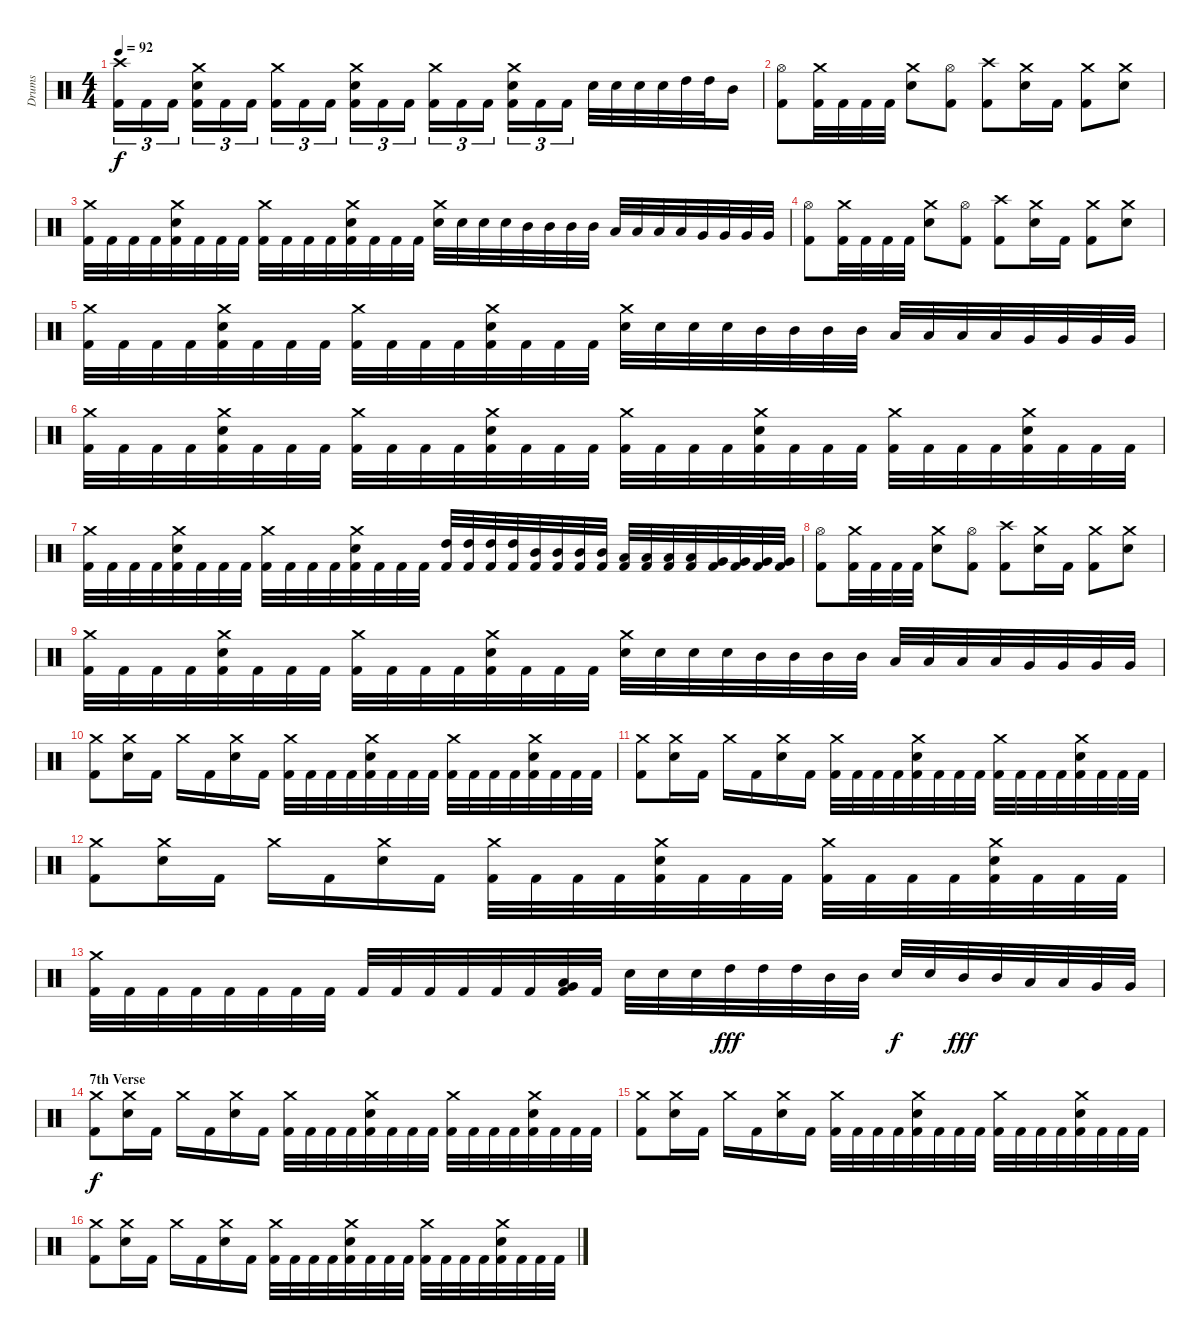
\track ("Drums" "Drums") {instrument percussion}
\staff {score}
\articulation defaults
\ts (4 4)
\tempo 92
\clef neutral
\ks c
("Kick (hit) 2" "Crash high (hit)").16{tu (3 2) dy f} "Kick (hit) 2".16{tu (3 2)} "Kick (hit) 2".16{tu (3 2)} ("Kick (hit) 2" "Electric Snare (hit)" "Crash medium (hit)").16{tu (3 2)} "Kick (hit) 2".16{tu (3 2)} "Kick (hit) 2".16{tu (3 2)} ("Kick (hit) 2" "Crash medium (hit)").16{tu (3 2)} "Kick (hit) 2".16{tu (3 2)} "Kick (hit) 2".16{tu (3 2)} ("Kick (hit) 2" "Electric Snare (hit)" "Crash medium (hit)").16{tu (3 2)} "Kick (hit) 2".16{tu (3 2)} "Kick (hit) 2".16{tu (3 2)} ("Kick (hit) 2" "Crash medium (hit)").16{tu (3 2)} "Kick (hit) 2".16{tu (3 2)} "Kick (hit) 2".16{tu (3 2)} ("Kick (hit) 2" "Electric Snare (hit)" "Crash medium (hit)").16{tu (3 2)} "Kick (hit) 2".16{tu (3 2)} "Kick (hit) 2".16{tu (3 2)} "Electric Snare (hit)".32 "Electric Snare (hit)".32 "Electric Snare (hit)".32 "Electric Snare (hit)".32 "High Tom (hit)".32 "High Tom (hit)".32 "Mid Tom (hit)".16 |
("Kick (hit) 2" "Hi-Hat (open)").8 ("Kick (hit) 2" "Crash medium (hit)").32 "Kick (hit) 2".32 "Kick (hit) 2".32 "Kick (hit) 2".32 ("Electric Snare (hit)" "Crash medium (hit)").8 ("Kick (hit) 2" "Hi-Hat (open)").8 ("Kick (hit) 2" "Crash high (hit)").8 ("Electric Snare (hit)" "Crash medium (hit)").16 "Kick (hit) 2".16 ("Kick (hit) 2" "Crash medium (hit)").8 ("Electric Snare (hit)" "Crash medium (hit)").8 |
("Kick (hit) 2" "Crash medium (hit)").32 "Kick (hit) 2".32 "Kick (hit) 2".32 "Kick (hit) 2".32 ("Kick (hit) 2" "Electric Snare (hit)" "Crash medium (hit)").32 "Kick (hit) 2".32 "Kick (hit) 2".32 "Kick (hit) 2".32 ("Kick (hit) 2" "Crash medium (hit)").32 "Kick (hit) 2".32 "Kick (hit) 2".32 "Kick (hit) 2".32 ("Kick (hit) 2" "Electric Snare (hit)" "Crash medium (hit)").32 "Kick (hit) 2".32 "Kick (hit) 2".32 "Kick (hit) 2".32 ("Electric Snare (hit)" "Crash medium (hit)").32 "Electric Snare (hit)".32 "Electric Snare (hit)".32 "Electric Snare (hit)".32 "Mid Tom (hit)".32 "Mid Tom (hit)".32 "Mid Tom (hit)".32 "Mid Tom (hit)".32 "Low Tom (hit)".32 "Low Tom (hit)".32 "Low Tom (hit)".32 "Low Tom (hit)".32 "Very Low Tom (hit)".32 "Very Low Tom (hit)".32 "Very Low Tom (hit)".32 "Very Low Tom (hit)".32 |
("Kick (hit) 2" "Hi-Hat (open)").8 ("Kick (hit) 2" "Crash medium (hit)").32 "Kick (hit) 2".32 "Kick (hit) 2".32 "Kick (hit) 2".32 ("Electric Snare (hit)" "Crash medium (hit)").8 ("Kick (hit) 2" "Hi-Hat (open)").8 ("Kick (hit) 2" "Crash high (hit)").8 ("Electric Snare (hit)" "Crash medium (hit)").16 "Kick (hit) 2".16 ("Kick (hit) 2" "Crash medium (hit)").8 ("Electric Snare (hit)" "Crash medium (hit)").8 |
("Kick (hit) 2" "Crash medium (hit)").32 "Kick (hit) 2".32 "Kick (hit) 2".32 "Kick (hit) 2".32 ("Kick (hit) 2" "Electric Snare (hit)" "Crash medium (hit)").32 "Kick (hit) 2".32 "Kick (hit) 2".32 "Kick (hit) 2".32 ("Kick (hit) 2" "Crash medium (hit)").32 "Kick (hit) 2".32 "Kick (hit) 2".32 "Kick (hit) 2".32 ("Kick (hit) 2" "Electric Snare (hit)" "Crash medium (hit)").32 "Kick (hit) 2".32 "Kick (hit) 2".32 "Kick (hit) 2".32 ("Electric Snare (hit)" "Crash medium (hit)").32 "Electric Snare (hit)".32 "Electric Snare (hit)".32 "Electric Snare (hit)".32 "Mid Tom (hit)".32 "Mid Tom (hit)".32 "Mid Tom (hit)".32 "Mid Tom (hit)".32 "Low Tom (hit)".32 "Low Tom (hit)".32 "Low Tom (hit)".32 "Low Tom (hit)".32 "Very Low Tom (hit)".32 "Very Low Tom (hit)".32 "Very Low Tom (hit)".32 "Very Low Tom (hit)".32 |
("Kick (hit) 2" "Crash medium (hit)").32 "Kick (hit) 2".32 "Kick (hit) 2".32 "Kick (hit) 2".32 ("Kick (hit) 2" "Electric Snare (hit)" "Crash medium (hit)").32 "Kick (hit) 2".32 "Kick (hit) 2".32 "Kick (hit) 2".32 ("Kick (hit) 2" "Crash medium (hit)").32 "Kick (hit) 2".32 "Kick (hit) 2".32 "Kick (hit) 2".32 ("Kick (hit) 2" "Electric Snare (hit)" "Crash medium (hit)").32 "Kick (hit) 2".32 "Kick (hit) 2".32 "Kick (hit) 2".32 ("Kick (hit) 2" "Crash medium (hit)").32 "Kick (hit) 2".32 "Kick (hit) 2".32 "Kick (hit) 2".32 ("Kick (hit) 2" "Electric Snare (hit)" "Crash medium (hit)").32 "Kick (hit) 2".32 "Kick (hit) 2".32 "Kick (hit) 2".32 ("Kick (hit) 2" "Crash medium (hit)").32 "Kick (hit) 2".32 "Kick (hit) 2".32 "Kick (hit) 2".32 ("Kick (hit) 2" "Electric Snare (hit)" "Crash medium (hit)").32 "Kick (hit) 2".32 "Kick (hit) 2".32 "Kick (hit) 2".32 |
("Kick (hit) 2" "Crash medium (hit)").32 "Kick (hit) 2".32 "Kick (hit) 2".32 "Kick (hit) 2".32 ("Kick (hit) 2" "Electric Snare (hit)" "Crash medium (hit)").32 "Kick (hit) 2".32 "Kick (hit) 2".32 "Kick (hit) 2".32 ("Kick (hit) 2" "Crash medium (hit)").32 "Kick (hit) 2".32 "Kick (hit) 2".32 "Kick (hit) 2".32 ("Kick (hit) 2" "Electric Snare (hit)" "Crash medium (hit)").32 "Kick (hit) 2".32 "Kick (hit) 2".32 "Kick (hit) 2".32 ("Kick (hit) 2" "High Tom (hit)").32 ("Kick (hit) 2" "High Tom (hit)").32 ("Kick (hit) 2" "High Tom (hit)").32 ("Kick (hit) 2" "High Tom (hit)").32 ("Kick (hit) 2" "Mid Tom (hit)").32 ("Kick (hit) 2" "Mid Tom (hit)").32 ("Kick (hit) 2" "Mid Tom (hit)").32 ("Kick (hit) 2" "Mid Tom (hit)").32 ("Kick (hit) 2" "Low Tom (hit)").32 ("Kick (hit) 2" "Low Tom (hit)").32 ("Kick (hit) 2" "Low Tom (hit)").32 ("Kick (hit) 2" "Low Tom (hit)").32 ("Kick (hit) 2" "Very Low Tom (hit)").32 ("Kick (hit) 2" "Very Low Tom (hit)").32 ("Kick (hit) 2" "Very Low Tom (hit)").32 ("Kick (hit) 2" "Very Low Tom (hit)").32 |
("Kick (hit) 2" "Hi-Hat (open)").8 ("Kick (hit) 2" "Crash medium (hit)").32 "Kick (hit) 2".32 "Kick (hit) 2".32 "Kick (hit) 2".32 ("Electric Snare (hit)" "Crash medium (hit)").8 ("Kick (hit) 2" "Hi-Hat (open)").8 ("Kick (hit) 2" "Crash high (hit)").8 ("Electric Snare (hit)" "Crash medium (hit)").16 "Kick (hit) 2".16 ("Kick (hit) 2" "Crash medium (hit)").8 ("Electric Snare (hit)" "Crash medium (hit)").8 |
("Kick (hit) 2" "Crash medium (hit)").32 "Kick (hit) 2".32 "Kick (hit) 2".32 "Kick (hit) 2".32 ("Kick (hit) 2" "Electric Snare (hit)" "Crash medium (hit)").32 "Kick (hit) 2".32 "Kick (hit) 2".32 "Kick (hit) 2".32 ("Kick (hit) 2" "Crash medium (hit)").32 "Kick (hit) 2".32 "Kick (hit) 2".32 "Kick (hit) 2".32 ("Kick (hit) 2" "Electric Snare (hit)" "Crash medium (hit)").32 "Kick (hit) 2".32 "Kick (hit) 2".32 "Kick (hit) 2".32 ("Electric Snare (hit)" "Crash medium (hit)").32 "Electric Snare (hit)".32 "Electric Snare (hit)".32 "Electric Snare (hit)".32 "Mid Tom (hit)".32 "Mid Tom (hit)".32 "Mid Tom (hit)".32 "Mid Tom (hit)".32 "Low Tom (hit)".32 "Low Tom (hit)".32 "Low Tom (hit)".32 "Low Tom (hit)".32 "Very Low Tom (hit)".32 "Very Low Tom (hit)".32 "Very Low Tom (hit)".32 "Very Low Tom (hit)".32 |
("Kick (hit) 2" "Crash medium (hit)").8 ("Electric Snare (hit)" "Crash medium (hit)").16 "Kick (hit) 2".16 "Crash medium (hit)".16 "Kick (hit) 2".16 ("Electric Snare (hit)" "Crash medium (hit)").16 "Kick (hit) 2".16 ("Kick (hit) 2" "Crash medium (hit)").32 "Kick (hit) 2".32 "Kick (hit) 2".32 "Kick (hit) 2".32 ("Kick (hit) 2" "Electric Snare (hit)" "Crash medium (hit)").32 "Kick (hit) 2".32 "Kick (hit) 2".32 "Kick (hit) 2".32 ("Kick (hit) 2" "Crash medium (hit)").32 "Kick (hit) 2".32 "Kick (hit) 2".32 "Kick (hit) 2".32 ("Kick (hit) 2" "Electric Snare (hit)" "Crash medium (hit)").32 "Kick (hit) 2".32 "Kick (hit) 2".32 "Kick (hit) 2".32 |
("Kick (hit) 2" "Crash medium (hit)").8 ("Electric Snare (hit)" "Crash medium (hit)").16 "Kick (hit) 2".16 "Crash medium (hit)".16 "Kick (hit) 2".16 ("Electric Snare (hit)" "Crash medium (hit)").16 "Kick (hit) 2".16 ("Kick (hit) 2" "Crash medium (hit)").32 "Kick (hit) 2".32 "Kick (hit) 2".32 "Kick (hit) 2".32 ("Kick (hit) 2" "Electric Snare (hit)" "Crash medium (hit)").32 "Kick (hit) 2".32 "Kick (hit) 2".32 "Kick (hit) 2".32 ("Kick (hit) 2" "Crash medium (hit)").32 "Kick (hit) 2".32 "Kick (hit) 2".32 "Kick (hit) 2".32 ("Kick (hit) 2" "Electric Snare (hit)" "Crash medium (hit)").32 "Kick (hit) 2".32 "Kick (hit) 2".32 "Kick (hit) 2".32 |
("Kick (hit) 2" "Crash medium (hit)").8 ("Electric Snare (hit)" "Crash medium (hit)").16 "Kick (hit) 2".16 "Crash medium (hit)".16 "Kick (hit) 2".16 ("Electric Snare (hit)" "Crash medium (hit)").16 "Kick (hit) 2".16 ("Kick (hit) 2" "Crash medium (hit)").32 "Kick (hit) 2".32 "Kick (hit) 2".32 "Kick (hit) 2".32 ("Kick (hit) 2" "Electric Snare (hit)" "Crash medium (hit)").32 "Kick (hit) 2".32 "Kick (hit) 2".32 "Kick (hit) 2".32 ("Kick (hit) 2" "Crash medium (hit)").32 "Kick (hit) 2".32 "Kick (hit) 2".32 "Kick (hit) 2".32 ("Kick (hit) 2" "Electric Snare (hit)" "Crash medium (hit)").32 "Kick (hit) 2".32 "Kick (hit) 2".32 "Kick (hit) 2".32 |
("Kick (hit) 2" "Crash medium (hit)").32 "Kick (hit) 2".32 "Kick (hit) 2".32 "Kick (hit) 2".32 "Kick (hit) 2".32 "Kick (hit) 2".32 "Kick (hit) 2".32 "Kick (hit) 2".32 "Kick (hit) 2".32 "Kick (hit) 2".32 "Kick (hit) 2".32 "Kick (hit) 2".32 "Kick (hit) 2".32 "Kick (hit) 2".32 ("Kick (hit) 2" "Low Tom (hit)" "Very Low Tom (hit)").32 "Kick (hit) 2".32 "Electric Snare (hit)".32 "Electric Snare (hit)".32 "Electric Snare (hit)".32 "High Tom (hit)".32{dy fff} "High Tom (hit)".32 "High Tom (hit)".32 "Mid Tom (hit)".32 "Mid Tom (hit)".32 "Electric Snare (hit)".32{dy f} "Electric Snare (hit)".32 "Mid Tom (hit)".32{dy fff} "Mid Tom (hit)".32 "Low Tom (hit)".32 "Low Tom (hit)".32 "Very Low Tom (hit)".32 "Very Low Tom (hit)".32 |
\section ("" "7th Verse")
("Kick (hit) 2" "Crash medium (hit)").8{dy f} ("Electric Snare (hit)" "Crash medium (hit)").16 "Kick (hit) 2".16 "Crash medium (hit)".16 "Kick (hit) 2".16 ("Electric Snare (hit)" "Crash medium (hit)").16 "Kick (hit) 2".16 ("Kick (hit) 2" "Crash medium (hit)").32 "Kick (hit) 2".32 "Kick (hit) 2".32 "Kick (hit) 2".32 ("Kick (hit) 2" "Electric Snare (hit)" "Crash medium (hit)").32 "Kick (hit) 2".32 "Kick (hit) 2".32 "Kick (hit) 2".32 ("Kick (hit) 2" "Crash medium (hit)").32 "Kick (hit) 2".32 "Kick (hit) 2".32 "Kick (hit) 2".32 ("Kick (hit) 2" "Electric Snare (hit)" "Crash medium (hit)").32 "Kick (hit) 2".32 "Kick (hit) 2".32 "Kick (hit) 2".32 |
("Kick (hit) 2" "Crash medium (hit)").8 ("Electric Snare (hit)" "Crash medium (hit)").16 "Kick (hit) 2".16 "Crash medium (hit)".16 "Kick (hit) 2".16 ("Electric Snare (hit)" "Crash medium (hit)").16 "Kick (hit) 2".16 ("Kick (hit) 2" "Crash medium (hit)").32 "Kick (hit) 2".32 "Kick (hit) 2".32 "Kick (hit) 2".32 ("Kick (hit) 2" "Electric Snare (hit)" "Crash medium (hit)").32 "Kick (hit) 2".32 "Kick (hit) 2".32 "Kick (hit) 2".32 ("Kick (hit) 2" "Crash medium (hit)").32 "Kick (hit) 2".32 "Kick (hit) 2".32 "Kick (hit) 2".32 ("Kick (hit) 2" "Electric Snare (hit)" "Crash medium (hit)").32 "Kick (hit) 2".32 "Kick (hit) 2".32 "Kick (hit) 2".32 |
("Kick (hit) 2" "Crash medium (hit)").8 ("Electric Snare (hit)" "Crash medium (hit)").16 "Kick (hit) 2".16 "Crash medium (hit)".16 "Kick (hit) 2".16 ("Electric Snare (hit)" "Crash medium (hit)").16 "Kick (hit) 2".16 ("Kick (hit) 2" "Crash medium (hit)").32 "Kick (hit) 2".32 "Kick (hit) 2".32 "Kick (hit) 2".32 ("Kick (hit) 2" "Electric Snare (hit)" "Crash medium (hit)").32 "Kick (hit) 2".32 "Kick (hit) 2".32 "Kick (hit) 2".32 ("Kick (hit) 2" "Crash medium (hit)").32 "Kick (hit) 2".32 "Kick (hit) 2".32 "Kick (hit) 2".32 ("Kick (hit) 2" "Electric Snare (hit)" "Crash medium (hit)").32 "Kick (hit) 2".32 "Kick (hit) 2".32 "Kick (hit) 2".32
